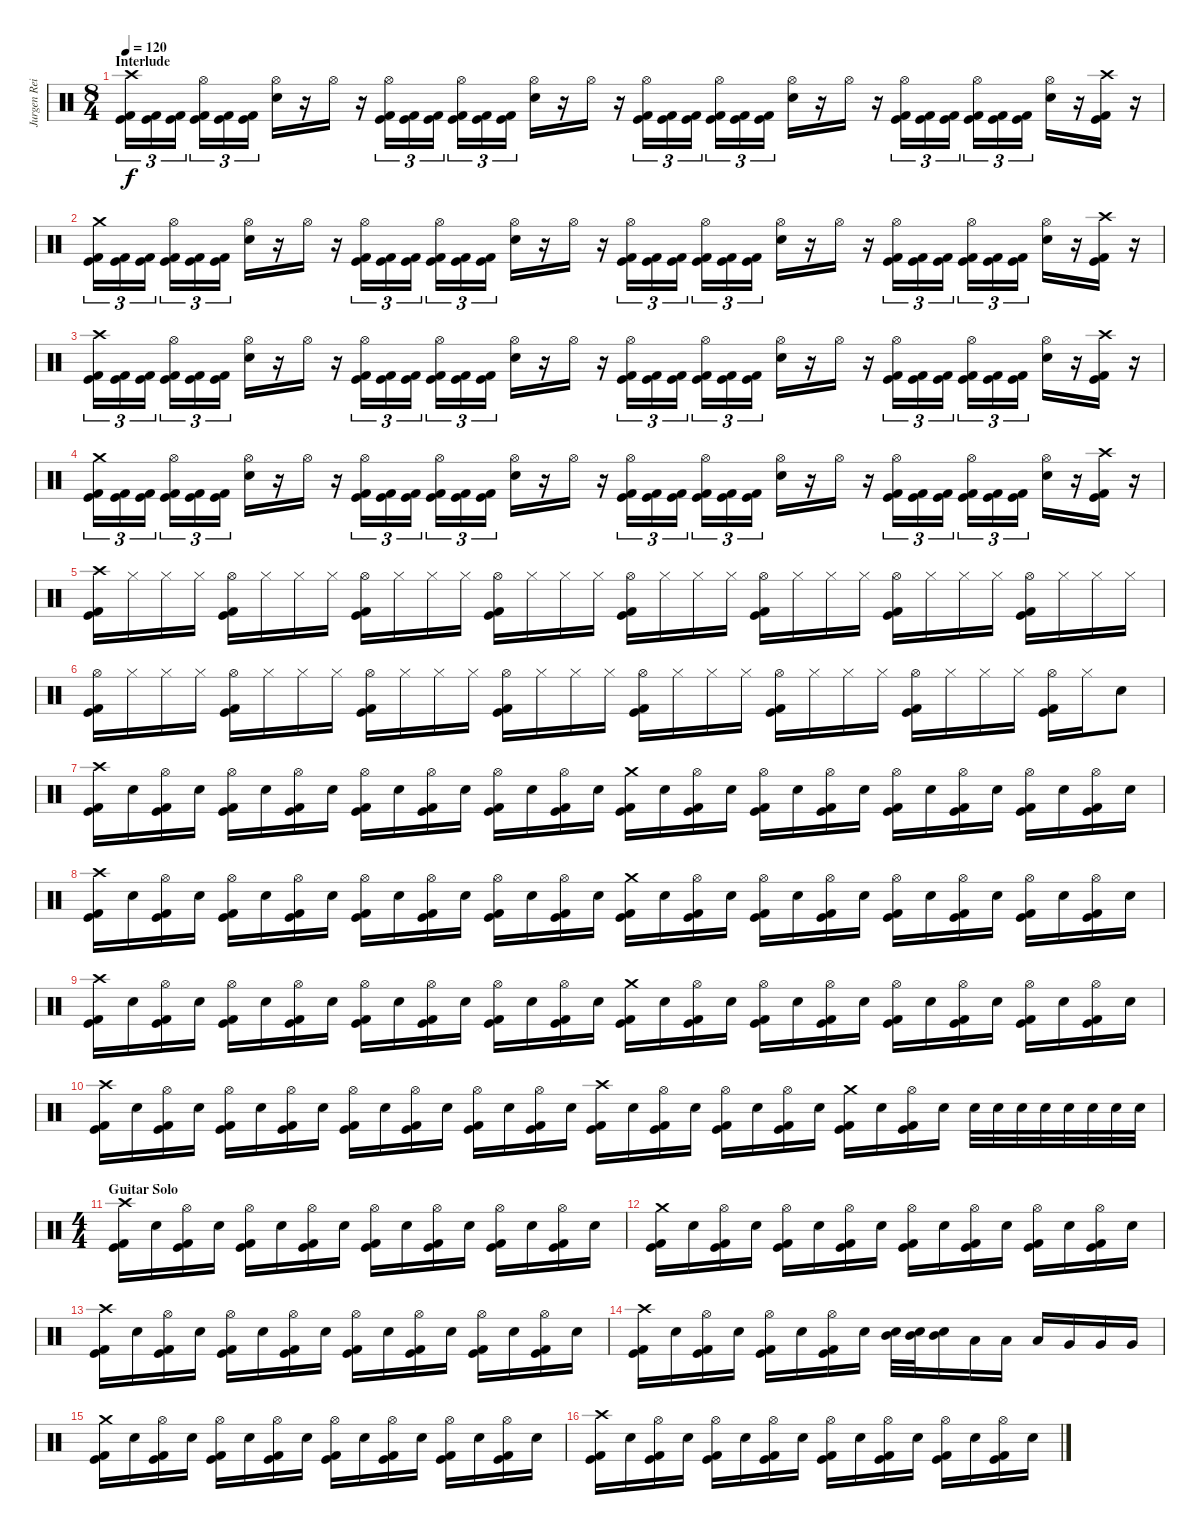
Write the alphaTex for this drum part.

\track ("Jurgen Reil" "Jurgen Rei") {instrument percussion}
\staff {score}
\articulation defaults
\ts (8 4)
\section ("" "Interlude")
\tempo 120
\clef neutral
\ks c
("Crash high (hit)" "Kick (hit)" "Kick (hit) 2").16{tu (3 2) dy f} ("Kick (hit)" "Kick (hit) 2").16{tu (3 2)} ("Kick (hit)" "Kick (hit) 2").16{tu (3 2)} ("Hi-Hat (open)" "Kick (hit)" "Kick (hit) 2").16{tu (3 2)} ("Kick (hit)" "Kick (hit) 2").16{tu (3 2)} ("Kick (hit)" "Kick (hit) 2").16{tu (3 2)} ("Hi-Hat (open)" "Electric Snare (hit)").16 r.16 "Hi-Hat (open)".16 r.16 ("Hi-Hat (open)" "Kick (hit)" "Kick (hit) 2").16{tu (3 2)} ("Kick (hit)" "Kick (hit) 2").16{tu (3 2)} ("Kick (hit)" "Kick (hit) 2").16{tu (3 2)} ("Hi-Hat (open)" "Kick (hit)" "Kick (hit) 2").16{tu (3 2)} ("Kick (hit)" "Kick (hit) 2").16{tu (3 2)} ("Kick (hit)" "Kick (hit) 2").16{tu (3 2)} ("Hi-Hat (open)" "Electric Snare (hit)").16 r.16 "Hi-Hat (open)".16 r.16 ("Hi-Hat (open)" "Kick (hit)" "Kick (hit) 2").16{tu (3 2)} ("Kick (hit)" "Kick (hit) 2").16{tu (3 2)} ("Kick (hit)" "Kick (hit) 2").16{tu (3 2)} ("Hi-Hat (open)" "Kick (hit)" "Kick (hit) 2").16{tu (3 2)} ("Kick (hit)" "Kick (hit) 2").16{tu (3 2)} ("Kick (hit)" "Kick (hit) 2").16{tu (3 2)} ("Hi-Hat (open)" "Electric Snare (hit)").16 r.16 "Hi-Hat (open)".16 r.16 ("Hi-Hat (open)" "Kick (hit)" "Kick (hit) 2").16{tu (3 2)} ("Kick (hit)" "Kick (hit) 2").16{tu (3 2)} ("Kick (hit)" "Kick (hit) 2").16{tu (3 2)} ("Hi-Hat (open)" "Kick (hit)" "Kick (hit) 2").16{tu (3 2)} ("Kick (hit)" "Kick (hit) 2").16{tu (3 2)} ("Kick (hit)" "Kick (hit) 2").16{tu (3 2)} ("Hi-Hat (open)" "Electric Snare (hit)").16 r.16 ("Crash high (hit)" "Kick (hit)" "Kick (hit) 2").16 r.16 |
("Crash medium (hit)" "Kick (hit)" "Kick (hit) 2").16{tu (3 2)} ("Kick (hit)" "Kick (hit) 2").16{tu (3 2)} ("Kick (hit)" "Kick (hit) 2").16{tu (3 2)} ("Hi-Hat (open)" "Kick (hit)" "Kick (hit) 2").16{tu (3 2)} ("Kick (hit)" "Kick (hit) 2").16{tu (3 2)} ("Kick (hit)" "Kick (hit) 2").16{tu (3 2)} ("Hi-Hat (open)" "Electric Snare (hit)").16 r.16 "Hi-Hat (open)".16 r.16 ("Hi-Hat (open)" "Kick (hit)" "Kick (hit) 2").16{tu (3 2)} ("Kick (hit)" "Kick (hit) 2").16{tu (3 2)} ("Kick (hit)" "Kick (hit) 2").16{tu (3 2)} ("Hi-Hat (open)" "Kick (hit)" "Kick (hit) 2").16{tu (3 2)} ("Kick (hit)" "Kick (hit) 2").16{tu (3 2)} ("Kick (hit)" "Kick (hit) 2").16{tu (3 2)} ("Hi-Hat (open)" "Electric Snare (hit)").16 r.16 "Hi-Hat (open)".16 r.16 ("Hi-Hat (open)" "Kick (hit)" "Kick (hit) 2").16{tu (3 2)} ("Kick (hit)" "Kick (hit) 2").16{tu (3 2)} ("Kick (hit)" "Kick (hit) 2").16{tu (3 2)} ("Hi-Hat (open)" "Kick (hit)" "Kick (hit) 2").16{tu (3 2)} ("Kick (hit)" "Kick (hit) 2").16{tu (3 2)} ("Kick (hit)" "Kick (hit) 2").16{tu (3 2)} ("Hi-Hat (open)" "Electric Snare (hit)").16 r.16 "Hi-Hat (open)".16 r.16 ("Hi-Hat (open)" "Kick (hit)" "Kick (hit) 2").16{tu (3 2)} ("Kick (hit)" "Kick (hit) 2").16{tu (3 2)} ("Kick (hit)" "Kick (hit) 2").16{tu (3 2)} ("Hi-Hat (open)" "Kick (hit)" "Kick (hit) 2").16{tu (3 2)} ("Kick (hit)" "Kick (hit) 2").16{tu (3 2)} ("Kick (hit)" "Kick (hit) 2").16{tu (3 2)} ("Hi-Hat (open)" "Electric Snare (hit)").16 r.16 ("Crash high (hit)" "Kick (hit)" "Kick (hit) 2").16 r.16 |
("Crash high (hit)" "Kick (hit)" "Kick (hit) 2").16{tu (3 2)} ("Kick (hit)" "Kick (hit) 2").16{tu (3 2)} ("Kick (hit)" "Kick (hit) 2").16{tu (3 2)} ("Hi-Hat (open)" "Kick (hit)" "Kick (hit) 2").16{tu (3 2)} ("Kick (hit)" "Kick (hit) 2").16{tu (3 2)} ("Kick (hit)" "Kick (hit) 2").16{tu (3 2)} ("Hi-Hat (open)" "Electric Snare (hit)").16 r.16 "Hi-Hat (open)".16 r.16 ("Hi-Hat (open)" "Kick (hit)" "Kick (hit) 2").16{tu (3 2)} ("Kick (hit)" "Kick (hit) 2").16{tu (3 2)} ("Kick (hit)" "Kick (hit) 2").16{tu (3 2)} ("Hi-Hat (open)" "Kick (hit)" "Kick (hit) 2").16{tu (3 2)} ("Kick (hit)" "Kick (hit) 2").16{tu (3 2)} ("Kick (hit)" "Kick (hit) 2").16{tu (3 2)} ("Hi-Hat (open)" "Electric Snare (hit)").16 r.16 "Hi-Hat (open)".16 r.16 ("Hi-Hat (open)" "Kick (hit)" "Kick (hit) 2").16{tu (3 2)} ("Kick (hit)" "Kick (hit) 2").16{tu (3 2)} ("Kick (hit)" "Kick (hit) 2").16{tu (3 2)} ("Hi-Hat (open)" "Kick (hit)" "Kick (hit) 2").16{tu (3 2)} ("Kick (hit)" "Kick (hit) 2").16{tu (3 2)} ("Kick (hit)" "Kick (hit) 2").16{tu (3 2)} ("Hi-Hat (open)" "Electric Snare (hit)").16 r.16 "Hi-Hat (open)".16 r.16 ("Hi-Hat (open)" "Kick (hit)" "Kick (hit) 2").16{tu (3 2)} ("Kick (hit)" "Kick (hit) 2").16{tu (3 2)} ("Kick (hit)" "Kick (hit) 2").16{tu (3 2)} ("Hi-Hat (open)" "Kick (hit)" "Kick (hit) 2").16{tu (3 2)} ("Kick (hit)" "Kick (hit) 2").16{tu (3 2)} ("Kick (hit)" "Kick (hit) 2").16{tu (3 2)} ("Hi-Hat (open)" "Electric Snare (hit)").16 r.16 ("Crash high (hit)" "Kick (hit)" "Kick (hit) 2").16 r.16 |
("Crash medium (hit)" "Kick (hit)" "Kick (hit) 2").16{tu (3 2)} ("Kick (hit)" "Kick (hit) 2").16{tu (3 2)} ("Kick (hit)" "Kick (hit) 2").16{tu (3 2)} ("Hi-Hat (open)" "Kick (hit)" "Kick (hit) 2").16{tu (3 2)} ("Kick (hit)" "Kick (hit) 2").16{tu (3 2)} ("Kick (hit)" "Kick (hit) 2").16{tu (3 2)} ("Hi-Hat (open)" "Electric Snare (hit)").16 r.16 "Hi-Hat (open)".16 r.16 ("Hi-Hat (open)" "Kick (hit)" "Kick (hit) 2").16{tu (3 2)} ("Kick (hit)" "Kick (hit) 2").16{tu (3 2)} ("Kick (hit)" "Kick (hit) 2").16{tu (3 2)} ("Hi-Hat (open)" "Kick (hit)" "Kick (hit) 2").16{tu (3 2)} ("Kick (hit)" "Kick (hit) 2").16{tu (3 2)} ("Kick (hit)" "Kick (hit) 2").16{tu (3 2)} ("Hi-Hat (open)" "Electric Snare (hit)").16 r.16 "Hi-Hat (open)".16 r.16 ("Hi-Hat (open)" "Kick (hit)" "Kick (hit) 2").16{tu (3 2)} ("Kick (hit)" "Kick (hit) 2").16{tu (3 2)} ("Kick (hit)" "Kick (hit) 2").16{tu (3 2)} ("Hi-Hat (open)" "Kick (hit)" "Kick (hit) 2").16{tu (3 2)} ("Kick (hit)" "Kick (hit) 2").16{tu (3 2)} ("Kick (hit)" "Kick (hit) 2").16{tu (3 2)} ("Hi-Hat (open)" "Electric Snare (hit)").16 r.16 "Hi-Hat (open)".16 r.16 ("Hi-Hat (open)" "Kick (hit)" "Kick (hit) 2").16{tu (3 2)} ("Kick (hit)" "Kick (hit) 2").16{tu (3 2)} ("Kick (hit)" "Kick (hit) 2").16{tu (3 2)} ("Hi-Hat (open)" "Kick (hit)" "Kick (hit) 2").16{tu (3 2)} ("Kick (hit)" "Kick (hit) 2").16{tu (3 2)} ("Kick (hit)" "Kick (hit) 2").16{tu (3 2)} ("Hi-Hat (open)" "Electric Snare (hit)").16 r.16 ("Crash high (hit)" "Kick (hit)" "Kick (hit) 2").16 r.16 |
("Crash high (hit)" "Kick (hit)" "Kick (hit) 2").16 "Hi-Hat (closed)".16 "Hi-Hat (closed)".16 "Hi-Hat (closed)".16 ("Hi-Hat (open)" "Kick (hit)" "Kick (hit) 2").16 "Hi-Hat (closed)".16 "Hi-Hat (closed)".16 "Hi-Hat (closed)".16 ("Hi-Hat (open)" "Kick (hit)" "Kick (hit) 2").16 "Hi-Hat (closed)".16 "Hi-Hat (closed)".16 "Hi-Hat (closed)".16 ("Hi-Hat (open)" "Kick (hit)" "Kick (hit) 2").16 "Hi-Hat (closed)".16 "Hi-Hat (closed)".16 "Hi-Hat (closed)".16 ("Hi-Hat (open)" "Kick (hit)" "Kick (hit) 2").16 "Hi-Hat (closed)".16 "Hi-Hat (closed)".16 "Hi-Hat (closed)".16 ("Hi-Hat (open)" "Kick (hit)" "Kick (hit) 2").16 "Hi-Hat (closed)".16 "Hi-Hat (closed)".16 "Hi-Hat (closed)".16 ("Hi-Hat (open)" "Kick (hit)" "Kick (hit) 2").16 "Hi-Hat (closed)".16 "Hi-Hat (closed)".16 "Hi-Hat (closed)".16 ("Hi-Hat (open)" "Kick (hit)" "Kick (hit) 2").16 "Hi-Hat (closed)".16 "Hi-Hat (closed)".16 "Hi-Hat (closed)".16 |
("Hi-Hat (open)" "Kick (hit)" "Kick (hit) 2").16 "Hi-Hat (closed)".16 "Hi-Hat (closed)".16 "Hi-Hat (closed)".16 ("Hi-Hat (open)" "Kick (hit)" "Kick (hit) 2").16 "Hi-Hat (closed)".16 "Hi-Hat (closed)".16 "Hi-Hat (closed)".16 ("Hi-Hat (open)" "Kick (hit)" "Kick (hit) 2").16 "Hi-Hat (closed)".16 "Hi-Hat (closed)".16 "Hi-Hat (closed)".16 ("Hi-Hat (open)" "Kick (hit)" "Kick (hit) 2").16 "Hi-Hat (closed)".16 "Hi-Hat (closed)".16 "Hi-Hat (closed)".16 ("Hi-Hat (open)" "Kick (hit)" "Kick (hit) 2").16 "Hi-Hat (closed)".16 "Hi-Hat (closed)".16 "Hi-Hat (closed)".16 ("Hi-Hat (open)" "Kick (hit)" "Kick (hit) 2").16 "Hi-Hat (closed)".16 "Hi-Hat (closed)".16 "Hi-Hat (closed)".16 ("Hi-Hat (open)" "Kick (hit)" "Kick (hit) 2").16 "Hi-Hat (closed)".16 "Hi-Hat (closed)".16 "Hi-Hat (closed)".16 ("Hi-Hat (open)" "Kick (hit)" "Kick (hit) 2").16 "Hi-Hat (closed)".16 "Electric Snare (hit)".8 |
("Crash high (hit)" "Kick (hit)" "Kick (hit) 2").16 "Electric Snare (hit)".16 ("Hi-Hat (open)" "Kick (hit)" "Kick (hit) 2").16 "Electric Snare (hit)".16 ("Hi-Hat (open)" "Kick (hit)" "Kick (hit) 2").16 "Electric Snare (hit)".16 ("Hi-Hat (open)" "Kick (hit)" "Kick (hit) 2").16 "Electric Snare (hit)".16 ("Hi-Hat (open)" "Kick (hit)" "Kick (hit) 2").16 "Electric Snare (hit)".16 ("Hi-Hat (open)" "Kick (hit)" "Kick (hit) 2").16 "Electric Snare (hit)".16 ("Hi-Hat (open)" "Kick (hit)" "Kick (hit) 2").16 "Electric Snare (hit)".16 ("Hi-Hat (open)" "Kick (hit)" "Kick (hit) 2").16 "Electric Snare (hit)".16 ("Crash medium (hit)" "Kick (hit)" "Kick (hit) 2").16 "Electric Snare (hit)".16 ("Hi-Hat (open)" "Kick (hit)" "Kick (hit) 2").16 "Electric Snare (hit)".16 ("Hi-Hat (open)" "Kick (hit)" "Kick (hit) 2").16 "Electric Snare (hit)".16 ("Hi-Hat (open)" "Kick (hit)" "Kick (hit) 2").16 "Electric Snare (hit)".16 ("Hi-Hat (open)" "Kick (hit)" "Kick (hit) 2").16 "Electric Snare (hit)".16 ("Hi-Hat (open)" "Kick (hit)" "Kick (hit) 2").16 "Electric Snare (hit)".16 ("Hi-Hat (open)" "Kick (hit)" "Kick (hit) 2").16 "Electric Snare (hit)".16 ("Hi-Hat (open)" "Kick (hit)" "Kick (hit) 2").16 "Electric Snare (hit)".16 |
("Crash high (hit)" "Kick (hit)" "Kick (hit) 2").16 "Electric Snare (hit)".16 ("Hi-Hat (open)" "Kick (hit)" "Kick (hit) 2").16 "Electric Snare (hit)".16 ("Hi-Hat (open)" "Kick (hit)" "Kick (hit) 2").16 "Electric Snare (hit)".16 ("Hi-Hat (open)" "Kick (hit)" "Kick (hit) 2").16 "Electric Snare (hit)".16 ("Hi-Hat (open)" "Kick (hit)" "Kick (hit) 2").16 "Electric Snare (hit)".16 ("Hi-Hat (open)" "Kick (hit)" "Kick (hit) 2").16 "Electric Snare (hit)".16 ("Hi-Hat (open)" "Kick (hit)" "Kick (hit) 2").16 "Electric Snare (hit)".16 ("Hi-Hat (open)" "Kick (hit)" "Kick (hit) 2").16 "Electric Snare (hit)".16 ("Crash medium (hit)" "Kick (hit)" "Kick (hit) 2").16 "Electric Snare (hit)".16 ("Hi-Hat (open)" "Kick (hit)" "Kick (hit) 2").16 "Electric Snare (hit)".16 ("Hi-Hat (open)" "Kick (hit)" "Kick (hit) 2").16 "Electric Snare (hit)".16 ("Hi-Hat (open)" "Kick (hit)" "Kick (hit) 2").16 "Electric Snare (hit)".16 ("Hi-Hat (open)" "Kick (hit)" "Kick (hit) 2").16 "Electric Snare (hit)".16 ("Hi-Hat (open)" "Kick (hit)" "Kick (hit) 2").16 "Electric Snare (hit)".16 ("Hi-Hat (open)" "Kick (hit)" "Kick (hit) 2").16 "Electric Snare (hit)".16 ("Hi-Hat (open)" "Kick (hit)" "Kick (hit) 2").16 "Electric Snare (hit)".16 |
("Crash high (hit)" "Kick (hit)" "Kick (hit) 2").16 "Electric Snare (hit)".16 ("Hi-Hat (open)" "Kick (hit)" "Kick (hit) 2").16 "Electric Snare (hit)".16 ("Hi-Hat (open)" "Kick (hit)" "Kick (hit) 2").16 "Electric Snare (hit)".16 ("Hi-Hat (open)" "Kick (hit)" "Kick (hit) 2").16 "Electric Snare (hit)".16 ("Hi-Hat (open)" "Kick (hit)" "Kick (hit) 2").16 "Electric Snare (hit)".16 ("Hi-Hat (open)" "Kick (hit)" "Kick (hit) 2").16 "Electric Snare (hit)".16 ("Hi-Hat (open)" "Kick (hit)" "Kick (hit) 2").16 "Electric Snare (hit)".16 ("Hi-Hat (open)" "Kick (hit)" "Kick (hit) 2").16 "Electric Snare (hit)".16 ("Crash medium (hit)" "Kick (hit)" "Kick (hit) 2").16 "Electric Snare (hit)".16 ("Hi-Hat (open)" "Kick (hit)" "Kick (hit) 2").16 "Electric Snare (hit)".16 ("Hi-Hat (open)" "Kick (hit)" "Kick (hit) 2").16 "Electric Snare (hit)".16 ("Hi-Hat (open)" "Kick (hit)" "Kick (hit) 2").16 "Electric Snare (hit)".16 ("Hi-Hat (open)" "Kick (hit)" "Kick (hit) 2").16 "Electric Snare (hit)".16 ("Hi-Hat (open)" "Kick (hit)" "Kick (hit) 2").16 "Electric Snare (hit)".16 ("Hi-Hat (open)" "Kick (hit)" "Kick (hit) 2").16 "Electric Snare (hit)".16 ("Hi-Hat (open)" "Kick (hit)" "Kick (hit) 2").16 "Electric Snare (hit)".16 |
("Crash high (hit)" "Kick (hit)" "Kick (hit) 2").16 "Electric Snare (hit)".16 ("Hi-Hat (open)" "Kick (hit)" "Kick (hit) 2").16 "Electric Snare (hit)".16 ("Hi-Hat (open)" "Kick (hit)" "Kick (hit) 2").16 "Electric Snare (hit)".16 ("Hi-Hat (open)" "Kick (hit)" "Kick (hit) 2").16 "Electric Snare (hit)".16 ("Hi-Hat (open)" "Kick (hit)" "Kick (hit) 2").16 "Electric Snare (hit)".16 ("Hi-Hat (open)" "Kick (hit)" "Kick (hit) 2").16 "Electric Snare (hit)".16 ("Hi-Hat (open)" "Kick (hit)" "Kick (hit) 2").16 "Electric Snare (hit)".16 ("Hi-Hat (open)" "Kick (hit)" "Kick (hit) 2").16 "Electric Snare (hit)".16 ("Crash high (hit)" "Kick (hit)" "Kick (hit) 2").16 "Electric Snare (hit)".16 ("Hi-Hat (open)" "Kick (hit)" "Kick (hit) 2").16 "Electric Snare (hit)".16 ("Hi-Hat (open)" "Kick (hit)" "Kick (hit) 2").16 "Electric Snare (hit)".16 ("Hi-Hat (open)" "Kick (hit)" "Kick (hit) 2").16 "Electric Snare (hit)".16 ("Crash medium (hit)" "Kick (hit)" "Kick (hit) 2").16 "Electric Snare (hit)".16 ("Hi-Hat (open)" "Kick (hit)" "Kick (hit) 2").16 "Electric Snare (hit)".16 "Electric Snare (hit)".32 "Electric Snare (hit)".32 "Electric Snare (hit)".32 "Electric Snare (hit)".32 "Electric Snare (hit)".32 "Electric Snare (hit)".32 "Electric Snare (hit)".32 "Electric Snare (hit)".32 |
\ts (4 4)
\section ("" "Guitar Solo")
("Crash high (hit)" "Kick (hit)" "Kick (hit) 2").16 "Electric Snare (hit)".16 ("Hi-Hat (open)" "Kick (hit)" "Kick (hit) 2").16 "Electric Snare (hit)".16 ("Hi-Hat (open)" "Kick (hit)" "Kick (hit) 2").16 "Electric Snare (hit)".16 ("Hi-Hat (open)" "Kick (hit)" "Kick (hit) 2").16 "Electric Snare (hit)".16 ("Hi-Hat (open)" "Kick (hit)" "Kick (hit) 2").16 "Electric Snare (hit)".16 ("Hi-Hat (open)" "Kick (hit)" "Kick (hit) 2").16 "Electric Snare (hit)".16 ("Hi-Hat (open)" "Kick (hit)" "Kick (hit) 2").16 "Electric Snare (hit)".16 ("Hi-Hat (open)" "Kick (hit)" "Kick (hit) 2").16 "Electric Snare (hit)".16 |
("Crash medium (hit)" "Kick (hit)" "Kick (hit) 2").16 "Electric Snare (hit)".16 ("Hi-Hat (open)" "Kick (hit)" "Kick (hit) 2").16 "Electric Snare (hit)".16 ("Hi-Hat (open)" "Kick (hit)" "Kick (hit) 2").16 "Electric Snare (hit)".16 ("Hi-Hat (open)" "Kick (hit)" "Kick (hit) 2").16 "Electric Snare (hit)".16 ("Hi-Hat (open)" "Kick (hit)" "Kick (hit) 2").16 "Electric Snare (hit)".16 ("Hi-Hat (open)" "Kick (hit)" "Kick (hit) 2").16 "Electric Snare (hit)".16 ("Hi-Hat (open)" "Kick (hit)" "Kick (hit) 2").16 "Electric Snare (hit)".16 ("Hi-Hat (open)" "Kick (hit)" "Kick (hit) 2").16 "Electric Snare (hit)".16 |
("Crash high (hit)" "Kick (hit)" "Kick (hit) 2").16 "Electric Snare (hit)".16 ("Hi-Hat (open)" "Kick (hit)" "Kick (hit) 2").16 "Electric Snare (hit)".16 ("Hi-Hat (open)" "Kick (hit)" "Kick (hit) 2").16 "Electric Snare (hit)".16 ("Hi-Hat (open)" "Kick (hit)" "Kick (hit) 2").16 "Electric Snare (hit)".16 ("Hi-Hat (open)" "Kick (hit)" "Kick (hit) 2").16 "Electric Snare (hit)".16 ("Hi-Hat (open)" "Kick (hit)" "Kick (hit) 2").16 "Electric Snare (hit)".16 ("Hi-Hat (open)" "Kick (hit)" "Kick (hit) 2").16 "Electric Snare (hit)".16 ("Hi-Hat (open)" "Kick (hit)" "Kick (hit) 2").16 "Electric Snare (hit)".16 |
("Crash high (hit)" "Kick (hit)" "Kick (hit) 2").16 "Electric Snare (hit)".16 ("Hi-Hat (open)" "Kick (hit)" "Kick (hit) 2").16 "Electric Snare (hit)".16 ("Hi-Hat (open)" "Kick (hit)" "Kick (hit) 2").16 "Electric Snare (hit)".16 ("Hi-Hat (open)" "Kick (hit)" "Kick (hit) 2").16 "Electric Snare (hit)".16 ("Mid Tom (hit)" "Electric Snare (hit)").32 ("Mid Tom (hit)" "Electric Snare (hit)").32 ("Mid Tom (hit)" "Electric Snare (hit)").16 "Low Tom (hit)".16 "Low Tom (hit)".16 "Low Tom (hit)".16 "Very Low Tom (hit)".16 "Very Low Tom (hit)".16 "Very Low Tom (hit)".16 |
("Crash medium (hit)" "Kick (hit)" "Kick (hit) 2").16 "Electric Snare (hit)".16 ("Hi-Hat (open)" "Kick (hit)" "Kick (hit) 2").16 "Electric Snare (hit)".16 ("Hi-Hat (open)" "Kick (hit)" "Kick (hit) 2").16 "Electric Snare (hit)".16 ("Hi-Hat (open)" "Kick (hit)" "Kick (hit) 2").16 "Electric Snare (hit)".16 ("Hi-Hat (open)" "Kick (hit)" "Kick (hit) 2").16 "Electric Snare (hit)".16 ("Hi-Hat (open)" "Kick (hit)" "Kick (hit) 2").16 "Electric Snare (hit)".16 ("Hi-Hat (open)" "Kick (hit)" "Kick (hit) 2").16 "Electric Snare (hit)".16 ("Hi-Hat (open)" "Kick (hit)" "Kick (hit) 2").16 "Electric Snare (hit)".16 |
("Crash high (hit)" "Kick (hit)" "Kick (hit) 2").16 "Electric Snare (hit)".16 ("Hi-Hat (open)" "Kick (hit)" "Kick (hit) 2").16 "Electric Snare (hit)".16 ("Hi-Hat (open)" "Kick (hit)" "Kick (hit) 2").16 "Electric Snare (hit)".16 ("Hi-Hat (open)" "Kick (hit)" "Kick (hit) 2").16 "Electric Snare (hit)".16 ("Hi-Hat (open)" "Kick (hit)" "Kick (hit) 2").16 "Electric Snare (hit)".16 ("Hi-Hat (open)" "Kick (hit)" "Kick (hit) 2").16 "Electric Snare (hit)".16 ("Hi-Hat (open)" "Kick (hit)" "Kick (hit) 2").16 "Electric Snare (hit)".16 ("Hi-Hat (open)" "Kick (hit)" "Kick (hit) 2").16 "Electric Snare (hit)".16
